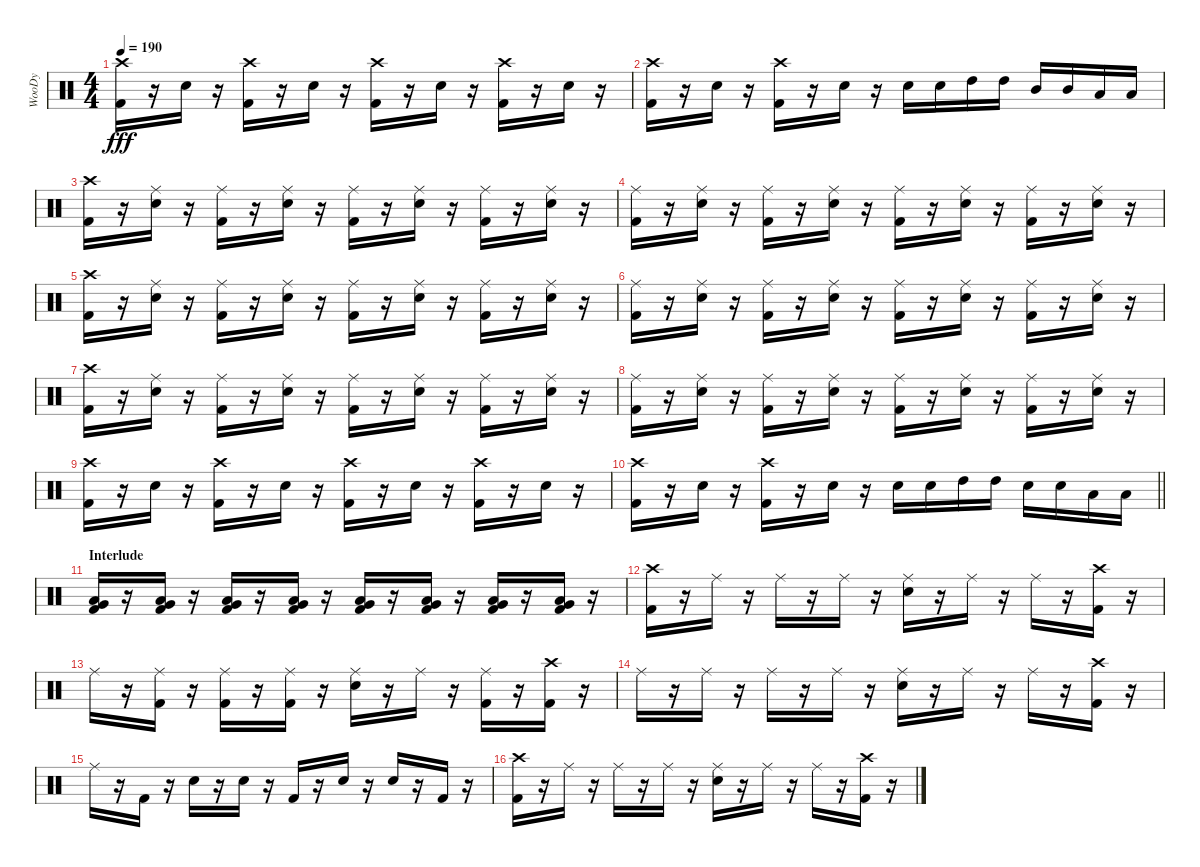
\track ("WooDy" "WooDy") {instrument percussion}
\staff {score}
\articulation defaults
\ts (4 4)
\tempo 190
\clef neutral
\ks c
("Kick (hit) 2" "Crash high (hit)").16{dy fff} r.16 "Snare (hit) 2".16 r.16 ("Kick (hit) 2" "Crash high (hit)").16 r.16 "Snare (hit) 2".16 r.16 ("Kick (hit) 2" "Crash high (hit)").16 r.16 "Snare (hit) 2".16 r.16 ("Kick (hit) 2" "Crash high (hit)").16 r.16 "Snare (hit) 2".16 r.16 |
("Kick (hit) 2" "Crash high (hit)").16 r.16 "Snare (hit) 2".16 r.16 ("Kick (hit) 2" "Crash high (hit)").16 r.16 "Snare (hit) 2".16 r.16 "Snare (hit) 2".16 "Snare (hit) 2".16 "High Tom (hit)".16 "High Tom (hit)".16 "Mid Tom (hit)".16 "Mid Tom (hit)".16 "Low Tom (hit)".16 "Low Tom (hit)".16 |
("Kick (hit) 2" "Crash high (hit)").16 r.16 ("Snare (hit) 2" "Ride (middle)").16 r.16 ("Kick (hit) 2" "Ride (middle)").16 r.16 ("Snare (hit) 2" "Ride (middle)").16 r.16 ("Kick (hit) 2" "Ride (middle)").16 r.16 ("Snare (hit) 2" "Ride (middle)").16 r.16 ("Kick (hit) 2" "Ride (middle)").16 r.16 ("Snare (hit) 2" "Ride (middle)").16 r.16 |
("Kick (hit) 2" "Ride (middle)").16 r.16 ("Snare (hit) 2" "Ride (middle)").16 r.16 ("Kick (hit) 2" "Ride (middle)").16 r.16 ("Snare (hit) 2" "Ride (middle)").16 r.16 ("Kick (hit) 2" "Ride (middle)").16 r.16 ("Snare (hit) 2" "Ride (middle)").16 r.16 ("Kick (hit) 2" "Ride (middle)").16 r.16 ("Snare (hit) 2" "Ride (middle)").16 r.16 |
("Kick (hit) 2" "Crash high (hit)").16 r.16 ("Snare (hit) 2" "Ride (middle)").16 r.16 ("Kick (hit) 2" "Ride (middle)").16 r.16 ("Snare (hit) 2" "Ride (middle)").16 r.16 ("Kick (hit) 2" "Ride (middle)").16 r.16 ("Snare (hit) 2" "Ride (middle)").16 r.16 ("Kick (hit) 2" "Ride (middle)").16 r.16 ("Snare (hit) 2" "Ride (middle)").16 r.16 |
("Kick (hit) 2" "Ride (middle)").16 r.16 ("Snare (hit) 2" "Ride (middle)").16 r.16 ("Kick (hit) 2" "Ride (middle)").16 r.16 ("Snare (hit) 2" "Ride (middle)").16 r.16 ("Kick (hit) 2" "Ride (middle)").16 r.16 ("Snare (hit) 2" "Ride (middle)").16 r.16 ("Kick (hit) 2" "Ride (middle)").16 r.16 ("Snare (hit) 2" "Ride (middle)").16 r.16 |
("Kick (hit) 2" "Crash high (hit)").16 r.16 ("Snare (hit) 2" "Ride (middle)").16 r.16 ("Kick (hit) 2" "Ride (middle)").16 r.16 ("Snare (hit) 2" "Ride (middle)").16 r.16 ("Kick (hit) 2" "Ride (middle)").16 r.16 ("Snare (hit) 2" "Ride (middle)").16 r.16 ("Kick (hit) 2" "Ride (middle)").16 r.16 ("Snare (hit) 2" "Ride (middle)").16 r.16 |
("Kick (hit) 2" "Ride (middle)").16 r.16 ("Snare (hit) 2" "Ride (middle)").16 r.16 ("Kick (hit) 2" "Ride (middle)").16 r.16 ("Snare (hit) 2" "Ride (middle)").16 r.16 ("Kick (hit) 2" "Ride (middle)").16 r.16 ("Snare (hit) 2" "Ride (middle)").16 r.16 ("Kick (hit) 2" "Ride (middle)").16 r.16 ("Snare (hit) 2" "Ride (middle)").16 r.16 |
("Kick (hit) 2" "Crash high (hit)").16 r.16 "Snare (hit) 2".16 r.16 ("Kick (hit) 2" "Crash high (hit)").16 r.16 "Snare (hit) 2".16 r.16 ("Kick (hit) 2" "Crash high (hit)").16 r.16 "Snare (hit) 2".16 r.16 ("Kick (hit) 2" "Crash high (hit)").16 r.16 "Snare (hit) 2".16 r.16 |
\barLineRight lightlight
("Kick (hit) 2" "Crash high (hit)").16 r.16 "Snare (hit) 2".16 r.16 ("Kick (hit) 2" "Crash high (hit)").16 r.16 "Snare (hit) 2".16 r.16 "Snare (hit) 2".16 "Snare (hit) 2".16 "High Tom (hit)".16 "High Tom (hit)".16 "Snare (hit) 2".16 "Snare (hit) 2".16 "Low Tom (hit)".16 "Low Tom (hit)".16 |
\section ("" "Interlude")
("Kick (hit) 2" "Very Low Tom (hit)" "Low Tom (hit)").16 r.16 ("Kick (hit) 2" "Very Low Tom (hit)" "Low Tom (hit)").16 r.16 ("Kick (hit) 2" "Very Low Tom (hit)" "Low Tom (hit)").16 r.16 ("Kick (hit) 2" "Very Low Tom (hit)" "Low Tom (hit)").16 r.16 ("Kick (hit) 2" "Very Low Tom (hit)" "Low Tom (hit)").16 r.16 ("Kick (hit) 2" "Very Low Tom (hit)" "Low Tom (hit)").16 r.16 ("Kick (hit) 2" "Very Low Tom (hit)" "Low Tom (hit)").16 r.16 ("Kick (hit) 2" "Very Low Tom (hit)" "Low Tom (hit)").16 r.16 |
("Kick (hit) 2" "Crash high (hit)").16 r.16 "Ride (middle)".16 r.16 "Ride (middle)".16 r.16 "Ride (middle)".16 r.16 ("Snare (hit) 2" "Ride (middle)").16 r.16 "Ride (middle)".16 r.16 "Ride (middle)".16 r.16 ("Kick (hit) 2" "Crash high (hit)").16 r.16 |
"Ride (middle)".16 r.16 ("Kick (hit) 2" "Ride (middle)").16 r.16 ("Kick (hit) 2" "Ride (middle)").16 r.16 ("Kick (hit) 2" "Ride (middle)").16 r.16 ("Snare (hit) 2" "Ride (middle)").16 r.16 "Ride (middle)".16 r.16 ("Kick (hit) 2" "Ride (middle)").16 r.16 ("Kick (hit) 2" "Crash high (hit)").16 r.16 |
"Ride (middle)".16 r.16 "Ride (middle)".16 r.16 "Ride (middle)".16 r.16 "Ride (middle)".16 r.16 ("Snare (hit) 2" "Ride (middle)").16 r.16 "Ride (middle)".16 r.16 "Ride (middle)".16 r.16 ("Kick (hit) 2" "Crash high (hit)").16 r.16 |
"Ride (middle)".16 r.16 "Kick (hit) 2".16 r.16 "Snare (hit) 2".16 r.16 "Snare (hit) 2".16 r.16 "Kick (hit) 2".16 r.16 "Snare (hit) 2".16 r.16 "Snare (hit) 2".16 r.16 "Kick (hit) 2".16 r.16 |
("Kick (hit) 2" "Crash high (hit)").16 r.16 "Ride (middle)".16 r.16 "Ride (middle)".16 r.16 "Ride (middle)".16 r.16 ("Snare (hit) 2" "Ride (middle)").16 r.16 "Ride (middle)".16 r.16 "Ride (middle)".16 r.16 ("Kick (hit) 2" "Crash high (hit)").16 r.16
